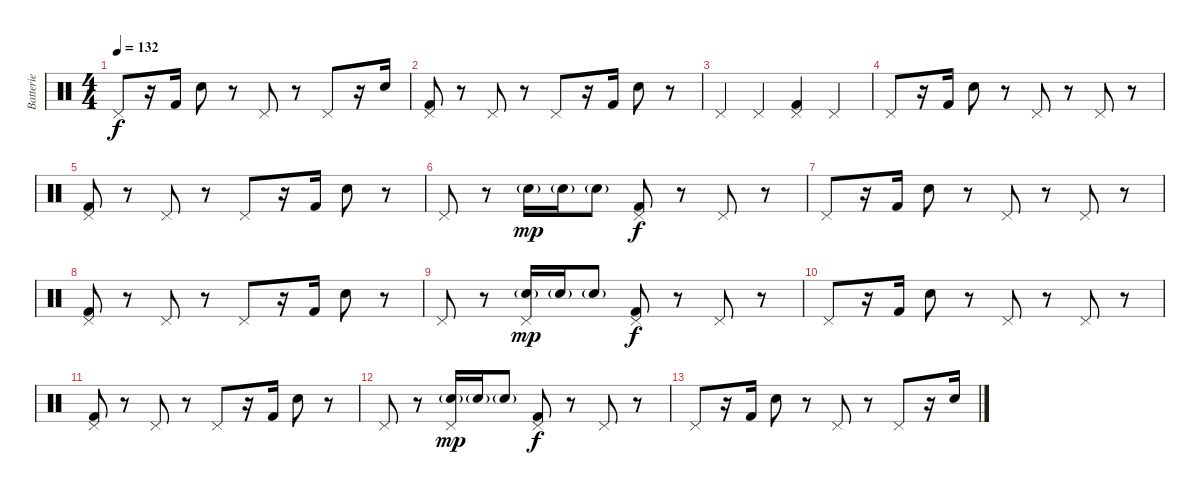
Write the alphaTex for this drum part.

\track ("Batterie" "Batterie") {instrument percussion}
\staff {score}
\articulation defaults
\ts (4 4)
\tempo 132
\clef neutral
\ks c "Pedal Hi-Hat (hit)".8{dy f}
r.16 "Kick (hit) 2".16 "Electric Snare (hit)".8 r.8 "Pedal Hi-Hat (hit)".8 r.8 "Pedal Hi-Hat (hit)".8 r.16 "Electric Snare (hit)".16 |
("Pedal Hi-Hat (hit)" "Kick (hit) 2").8 r.8 "Pedal Hi-Hat (hit)".8 r.8 "Pedal Hi-Hat (hit)".8 r.16 "Kick (hit) 2".16 "Electric Snare (hit)".8 r.8 |
"Pedal Hi-Hat (hit)".4 "Pedal Hi-Hat (hit)".4 ("Pedal Hi-Hat (hit)" "Kick (hit) 2").4 "Pedal Hi-Hat (hit)".4 |
"Pedal Hi-Hat (hit)".8 r.16 "Kick (hit) 2".16 "Electric Snare (hit)".8 r.8 "Pedal Hi-Hat (hit)".8 r.8 "Pedal Hi-Hat (hit)".8 r.8 |
("Pedal Hi-Hat (hit)" "Kick (hit) 2").8 r.8 "Pedal Hi-Hat (hit)".8 r.8 "Pedal Hi-Hat (hit)".8 r.16 "Kick (hit) 2".16 "Electric Snare (hit)".8 r.8 |
"Pedal Hi-Hat (hit)".8 r.8 "Electric Snare (hit)"{g}.16{dy mp} "Electric Snare (hit)"{g}.16 "Electric Snare (hit)"{g}.8 ("Pedal Hi-Hat (hit)" "Kick (hit) 2").8{dy f} r.8 "Pedal Hi-Hat (hit)".8 r.8 |
"Pedal Hi-Hat (hit)".8 r.16 "Kick (hit) 2".16 "Electric Snare (hit)".8 r.8 "Pedal Hi-Hat (hit)".8 r.8 "Pedal Hi-Hat (hit)".8 r.8 |
("Pedal Hi-Hat (hit)" "Kick (hit) 2").8 r.8 "Pedal Hi-Hat (hit)".8 r.8 "Pedal Hi-Hat (hit)".8 r.16 "Kick (hit) 2".16 "Electric Snare (hit)".8 r.8 |
"Pedal Hi-Hat (hit)".8 r.8 ("Pedal Hi-Hat (hit)" "Electric Snare (hit)"{g}).16{dy mp} "Electric Snare (hit)"{g}.16 "Electric Snare (hit)"{g}.8 ("Pedal Hi-Hat (hit)" "Kick (hit) 2").8{dy f} r.8 "Pedal Hi-Hat (hit)".8 r.8 |
"Pedal Hi-Hat (hit)".8 r.16 "Kick (hit) 2".16 "Electric Snare (hit)".8 r.8 "Pedal Hi-Hat (hit)".8 r.8 "Pedal Hi-Hat (hit)".8 r.8 |
("Pedal Hi-Hat (hit)" "Kick (hit) 2").8 r.8 "Pedal Hi-Hat (hit)".8 r.8 "Pedal Hi-Hat (hit)".8 r.16 "Kick (hit) 2".16 "Electric Snare (hit)".8 r.8 |
"Pedal Hi-Hat (hit)".8 r.8 ("Pedal Hi-Hat (hit)" "Electric Snare (hit)"{g}).16{dy mp} "Electric Snare (hit)"{g}.16 "Electric Snare (hit)"{g}.8 ("Pedal Hi-Hat (hit)" "Kick (hit) 2").8{dy f} r.8 "Pedal Hi-Hat (hit)".8 r.8 |
"Pedal Hi-Hat (hit)".8 r.16 "Kick (hit) 2".16 "Electric Snare (hit)".8 r.8 "Pedal Hi-Hat (hit)".8 r.8 "Pedal Hi-Hat (hit)".8 r.16 "Electric Snare (hit)".16
